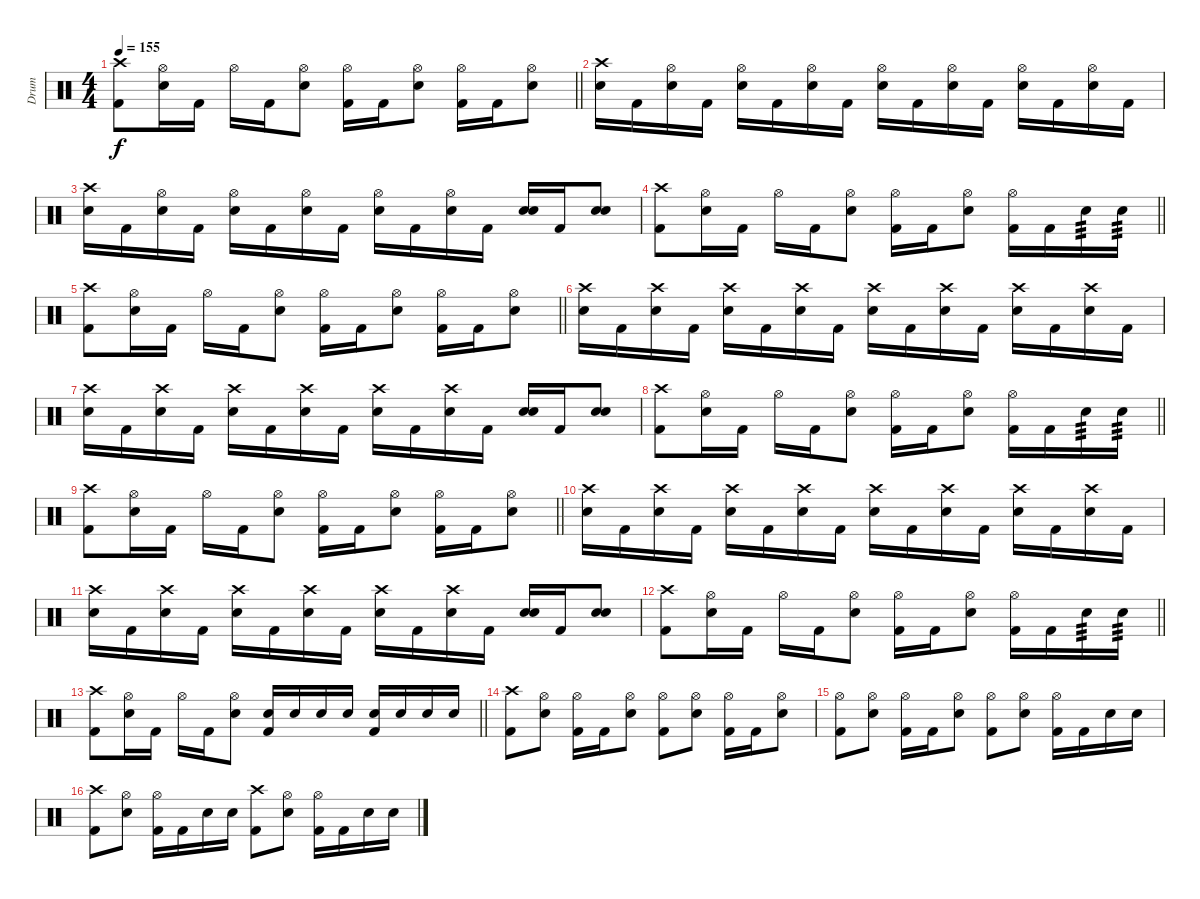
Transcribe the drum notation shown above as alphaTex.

\track ("Drum" "Drum") {solo instrument percussion}
\staff {score}
\articulation defaults
\ts (4 4)
\tempo 155
\clef neutral
\barLineRight lightlight
\ks c
("Crash high (hit)" "Kick (hit) 2").8{dy f} ("Hi-Hat (open)" "Electric Snare (hit)").16 "Kick (hit) 2".16 "Hi-Hat (open)".16 "Kick (hit) 2".16 ("Hi-Hat (open)" "Electric Snare (hit)").8 ("Kick (hit) 2" "Hi-Hat (open)").16 "Kick (hit) 2".16 ("Hi-Hat (open)" "Electric Snare (hit)").8 ("Kick (hit) 2" "Hi-Hat (open)").16 "Kick (hit) 2".16 ("Hi-Hat (open)" "Electric Snare (hit)").8 |
("Crash high (hit)" "Electric Snare (hit)").16 "Kick (hit) 2".16 ("Hi-Hat (open)" "Electric Snare (hit)").16 "Kick (hit) 2".16 ("Electric Snare (hit)" "Hi-Hat (open)").16 "Kick (hit) 2".16 ("Hi-Hat (open)" "Electric Snare (hit)").16 "Kick (hit) 2".16 ("Electric Snare (hit)" "Hi-Hat (open)").16 "Kick (hit) 2".16 ("Hi-Hat (open)" "Electric Snare (hit)").16 "Kick (hit) 2".16 ("Electric Snare (hit)" "Hi-Hat (open)").16 "Kick (hit) 2".16 ("Hi-Hat (open)" "Electric Snare (hit)").16 "Kick (hit) 2".16 |
("Electric Snare (hit)" "Crash high (hit)").16 "Kick (hit) 2".16 ("Hi-Hat (open)" "Electric Snare (hit)").16 "Kick (hit) 2".16 ("Electric Snare (hit)" "Hi-Hat (open)").16 "Kick (hit) 2".16 ("Hi-Hat (open)" "Electric Snare (hit)").16 "Kick (hit) 2".16 ("Electric Snare (hit)" "Hi-Hat (open)").16 "Kick (hit) 2".16 ("Hi-Hat (open)" "Electric Snare (hit)").16 "Kick (hit) 2".16 ("Electric Snare (hit)" "Electric Snare (hit)").16 "Kick (hit) 2".16 ("Electric Snare (hit)" "Electric Snare (hit)").8 |
\barLineRight lightlight
("Crash high (hit)" "Kick (hit) 2").8 ("Hi-Hat (open)" "Electric Snare (hit)").16 "Kick (hit) 2".16 "Hi-Hat (open)".16 "Kick (hit) 2".16 ("Hi-Hat (open)" "Electric Snare (hit)").8 ("Kick (hit) 2" "Hi-Hat (open)").16 "Kick (hit) 2".16 ("Hi-Hat (open)" "Electric Snare (hit)").8 ("Kick (hit) 2" "Hi-Hat (open)").16 "Kick (hit) 2".16 "Electric Snare (hit)".16{tp 3} "Electric Snare (hit)".16{tp 3} |
\barLineRight lightlight
("Crash high (hit)" "Kick (hit) 2").8 ("Hi-Hat (open)" "Electric Snare (hit)").16 "Kick (hit) 2".16 "Hi-Hat (open)".16 "Kick (hit) 2".16 ("Hi-Hat (open)" "Electric Snare (hit)").8 ("Kick (hit) 2" "Hi-Hat (open)").16 "Kick (hit) 2".16 ("Hi-Hat (open)" "Electric Snare (hit)").8 ("Kick (hit) 2" "Hi-Hat (open)").16 "Kick (hit) 2".16 ("Hi-Hat (open)" "Electric Snare (hit)").8 |
("Crash high (hit)" "Electric Snare (hit)").16 "Kick (hit) 2".16 ("Crash high (hit)" "Electric Snare (hit)").16 "Kick (hit) 2".16 ("Electric Snare (hit)" "Crash high (hit)").16 "Kick (hit) 2".16 ("Crash high (hit)" "Electric Snare (hit)").16 "Kick (hit) 2".16 ("Electric Snare (hit)" "Crash high (hit)").16 "Kick (hit) 2".16 ("Crash high (hit)" "Electric Snare (hit)").16 "Kick (hit) 2".16 ("Electric Snare (hit)" "Crash high (hit)").16 "Kick (hit) 2".16 ("Crash high (hit)" "Electric Snare (hit)").16 "Kick (hit) 2".16 |
("Electric Snare (hit)" "Crash high (hit)").16 "Kick (hit) 2".16 ("Electric Snare (hit)" "Crash high (hit)").16 "Kick (hit) 2".16 ("Electric Snare (hit)" "Crash high (hit)").16 "Kick (hit) 2".16 ("Crash high (hit)" "Electric Snare (hit)").16 "Kick (hit) 2".16 ("Electric Snare (hit)" "Crash high (hit)").16 "Kick (hit) 2".16 ("Crash high (hit)" "Electric Snare (hit)").16 "Kick (hit) 2".16 ("Electric Snare (hit)" "Electric Snare (hit)").16 "Kick (hit) 2".16 ("Electric Snare (hit)" "Electric Snare (hit)").8 |
\barLineRight lightlight
("Crash high (hit)" "Kick (hit) 2").8 ("Hi-Hat (open)" "Electric Snare (hit)").16 "Kick (hit) 2".16 "Hi-Hat (open)".16 "Kick (hit) 2".16 ("Hi-Hat (open)" "Electric Snare (hit)").8 ("Kick (hit) 2" "Hi-Hat (open)").16 "Kick (hit) 2".16 ("Hi-Hat (open)" "Electric Snare (hit)").8 ("Kick (hit) 2" "Hi-Hat (open)").16 "Kick (hit) 2".16 "Electric Snare (hit)".16{tp 3} "Electric Snare (hit)".16{tp 3} |
\barLineRight lightlight
("Crash high (hit)" "Kick (hit) 2").8 ("Hi-Hat (open)" "Electric Snare (hit)").16 "Kick (hit) 2".16 "Hi-Hat (open)".16 "Kick (hit) 2".16 ("Hi-Hat (open)" "Electric Snare (hit)").8 ("Kick (hit) 2" "Hi-Hat (open)").16 "Kick (hit) 2".16 ("Hi-Hat (open)" "Electric Snare (hit)").8 ("Kick (hit) 2" "Hi-Hat (open)").16 "Kick (hit) 2".16 ("Hi-Hat (open)" "Electric Snare (hit)").8 |
("Crash high (hit)" "Electric Snare (hit)").16 "Kick (hit) 2".16 ("Crash high (hit)" "Electric Snare (hit)").16 "Kick (hit) 2".16 ("Electric Snare (hit)" "Crash high (hit)").16 "Kick (hit) 2".16 ("Crash high (hit)" "Electric Snare (hit)").16 "Kick (hit) 2".16 ("Electric Snare (hit)" "Crash high (hit)").16 "Kick (hit) 2".16 ("Crash high (hit)" "Electric Snare (hit)").16 "Kick (hit) 2".16 ("Electric Snare (hit)" "Crash high (hit)").16 "Kick (hit) 2".16 ("Crash high (hit)" "Electric Snare (hit)").16 "Kick (hit) 2".16 |
("Electric Snare (hit)" "Crash high (hit)").16 "Kick (hit) 2".16 ("Electric Snare (hit)" "Crash high (hit)").16 "Kick (hit) 2".16 ("Electric Snare (hit)" "Crash high (hit)").16 "Kick (hit) 2".16 ("Crash high (hit)" "Electric Snare (hit)").16 "Kick (hit) 2".16 ("Electric Snare (hit)" "Crash high (hit)").16 "Kick (hit) 2".16 ("Crash high (hit)" "Electric Snare (hit)").16 "Kick (hit) 2".16 ("Electric Snare (hit)" "Electric Snare (hit)").16 "Kick (hit) 2".16 ("Electric Snare (hit)" "Electric Snare (hit)").8 |
\barLineRight lightlight
("Crash high (hit)" "Kick (hit) 2").8 ("Hi-Hat (open)" "Electric Snare (hit)").16 "Kick (hit) 2".16 "Hi-Hat (open)".16 "Kick (hit) 2".16 ("Hi-Hat (open)" "Electric Snare (hit)").8 ("Kick (hit) 2" "Hi-Hat (open)").16 "Kick (hit) 2".16 ("Hi-Hat (open)" "Electric Snare (hit)").8 ("Kick (hit) 2" "Hi-Hat (open)").16 "Kick (hit) 2".16 "Electric Snare (hit)".16{tp 3} "Electric Snare (hit)".16{tp 3} |
\barLineRight lightlight
("Crash high (hit)" "Kick (hit) 2").8 ("Hi-Hat (open)" "Electric Snare (hit)").16 "Kick (hit) 2".16 "Hi-Hat (open)".16 "Kick (hit) 2".16 ("Hi-Hat (open)" "Electric Snare (hit)").8 ("Electric Snare (hit)" "Kick (hit) 2").16 "Electric Snare (hit)".16 "Electric Snare (hit)".16 "Electric Snare (hit)".16 ("Electric Snare (hit)" "Kick (hit) 2").16 "Electric Snare (hit)".16 "Electric Snare (hit)".16 "Electric Snare (hit)".16 |
("Crash high (hit)" "Kick (hit) 2").8 ("Hi-Hat (open)" "Electric Snare (hit)").8 ("Hi-Hat (open)" "Kick (hit) 2").16 "Kick (hit) 2".16 ("Hi-Hat (open)" "Electric Snare (hit)").8 ("Hi-Hat (open)" "Kick (hit) 2").8 ("Hi-Hat (open)" "Electric Snare (hit)").8 ("Kick (hit) 2" "Hi-Hat (open)").16 "Kick (hit) 2".16 ("Hi-Hat (open)" "Electric Snare (hit)").8 |
("Hi-Hat (open)" "Kick (hit) 2").8 ("Hi-Hat (open)" "Electric Snare (hit)").8 ("Hi-Hat (open)" "Kick (hit) 2").16 "Kick (hit) 2".16 ("Hi-Hat (open)" "Electric Snare (hit)").8 ("Hi-Hat (open)" "Kick (hit) 2").8 ("Hi-Hat (open)" "Electric Snare (hit)").8 ("Kick (hit) 2" "Hi-Hat (open)").16 "Kick (hit) 2".16 "Electric Snare (hit)".16 "Electric Snare (hit)".16 |
("Crash high (hit)" "Kick (hit) 2").8 ("Hi-Hat (open)" "Electric Snare (hit)").8 ("Kick (hit) 2" "Hi-Hat (open)").16 "Kick (hit) 2".16 "Electric Snare (hit)".16 "Electric Snare (hit)".16 ("Crash high (hit)" "Kick (hit) 2").8 ("Hi-Hat (open)" "Electric Snare (hit)").8 ("Kick (hit) 2" "Hi-Hat (open)").16 "Kick (hit) 2".16 "Electric Snare (hit)".16 "Electric Snare (hit)".16
